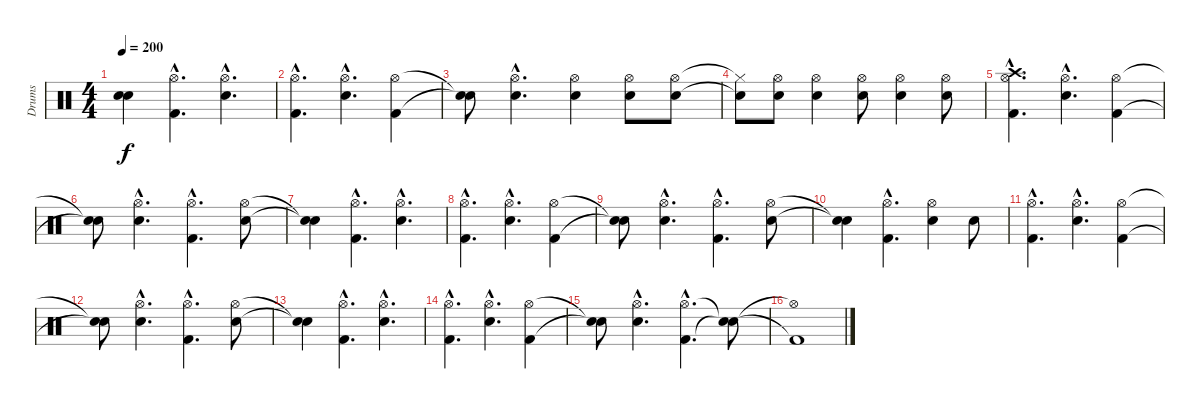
\track ("Drums" "Drums") {instrument percussion}
\staff {score}
\articulation defaults
\ts (4 4)
\tempo 200
\clef neutral
\ks c
("Snare (hit)"{t} "Snare (hit)"{t}).4{dy f} ("Hi-Hat (open)"{hac} "Kick (hit) 2"{hac}).4{d} ("Hi-Hat (open)"{hac} "Snare (hit) 2"{hac}).4{d} |
("Hi-Hat (open)"{hac} "Kick (hit) 2"{hac}).4{d} ("Hi-Hat (open)"{hac} "Snare (hit) 2"{hac}).4{d} ("Hi-Hat (open)" "Kick (hit) 2").4 |
("Snare (hit)"{t} "Snare (hit)"{t}).8 ("Hi-Hat (open)"{hac} "Snare (hit) 2"{hac}).4{d} ("Hi-Hat (open)" "Snare (hit) 2").4 ("Hi-Hat (open)" "Snare (hit) 2").8 ("Hi-Hat (open)" "Snare (hit) 2").8 |
("Hi-Hat (closed)"{t} "Snare (hit) 2"{t}).8 ("Hi-Hat (open)" "Snare (hit) 2").8 ("Hi-Hat (open)" "Snare (hit) 2").4 ("Hi-Hat (open)" "Snare (hit) 2").8 ("Hi-Hat (open)" "Snare (hit) 2").4 ("Hi-Hat (open)" "Snare (hit) 2").8 |
("Crash high (hit)"{hac} "Hi-Hat (open)"{hac} "Kick (hit) 2"{hac}).4{d} ("Hi-Hat (open)"{hac} "Snare (hit) 2"{hac}).4{d} ("Hi-Hat (open)" "Kick (hit) 2").4 |
("Snare (hit)"{t} "Snare (hit)"{t}).8 ("Hi-Hat (open)"{hac} "Snare (hit) 2"{hac}).4{d} ("Hi-Hat (open)"{hac} "Kick (hit) 2"{hac}).4{d} ("Hi-Hat (open)" "Snare (hit) 2").8 |
("Snare (hit)"{t} "Snare (hit)"{t}).4 ("Hi-Hat (open)"{hac} "Kick (hit) 2"{hac}).4{d} ("Hi-Hat (open)"{hac} "Snare (hit) 2"{hac}).4{d} |
("Hi-Hat (open)"{hac} "Kick (hit) 2"{hac}).4{d} ("Hi-Hat (open)"{hac} "Snare (hit) 2"{hac}).4{d} ("Hi-Hat (open)" "Kick (hit) 2").4 |
("Snare (hit)"{t} "Snare (hit)"{t}).8 ("Hi-Hat (open)"{hac} "Snare (hit) 2"{hac}).4{d} ("Hi-Hat (open)"{hac} "Kick (hit) 2"{hac}).4{d} ("Hi-Hat (open)" "Snare (hit) 2").8 |
("Snare (hit)"{t} "Snare (hit)"{t}).4 ("Hi-Hat (open)"{hac} "Kick (hit) 2"{hac}).4{d} ("Hi-Hat (open)" "Snare (hit) 2").4 "Snare (hit) 2".8 |
("Hi-Hat (open)"{hac} "Kick (hit) 2"{hac}).4{d} ("Hi-Hat (open)"{hac} "Snare (hit) 2"{hac}).4{d} ("Hi-Hat (open)" "Kick (hit) 2").4 |
("Snare (hit)"{t} "Snare (hit)"{t}).8 ("Hi-Hat (open)"{hac} "Snare (hit) 2"{hac}).4{d} ("Hi-Hat (open)"{hac} "Kick (hit) 2"{hac}).4{d} ("Hi-Hat (open)" "Snare (hit) 2").8 |
("Snare (hit)"{t} "Snare (hit)"{t}).4 ("Hi-Hat (open)"{hac} "Kick (hit) 2"{hac}).4{d} ("Hi-Hat (open)"{hac} "Snare (hit) 2"{hac}).4{d} |
("Hi-Hat (open)"{hac} "Kick (hit) 2"{hac}).4{d} ("Hi-Hat (open)"{hac} "Snare (hit) 2"{hac}).4{d} ("Hi-Hat (open)" "Kick (hit) 2").4 |
("Snare (hit)"{t} "Snare (hit)"{t}).8 ("Hi-Hat (open)"{hac} "Snare (hit) 2"{hac}).4{d} ("Hi-Hat (open)"{hac} "Kick (hit) 2"{hac}).4{d} ("Snare (hit)"{t} "Snare (hit)"{t}).8 |
("Hi-Hat (open)"{t} "Kick (hit) 2"{t}).1
